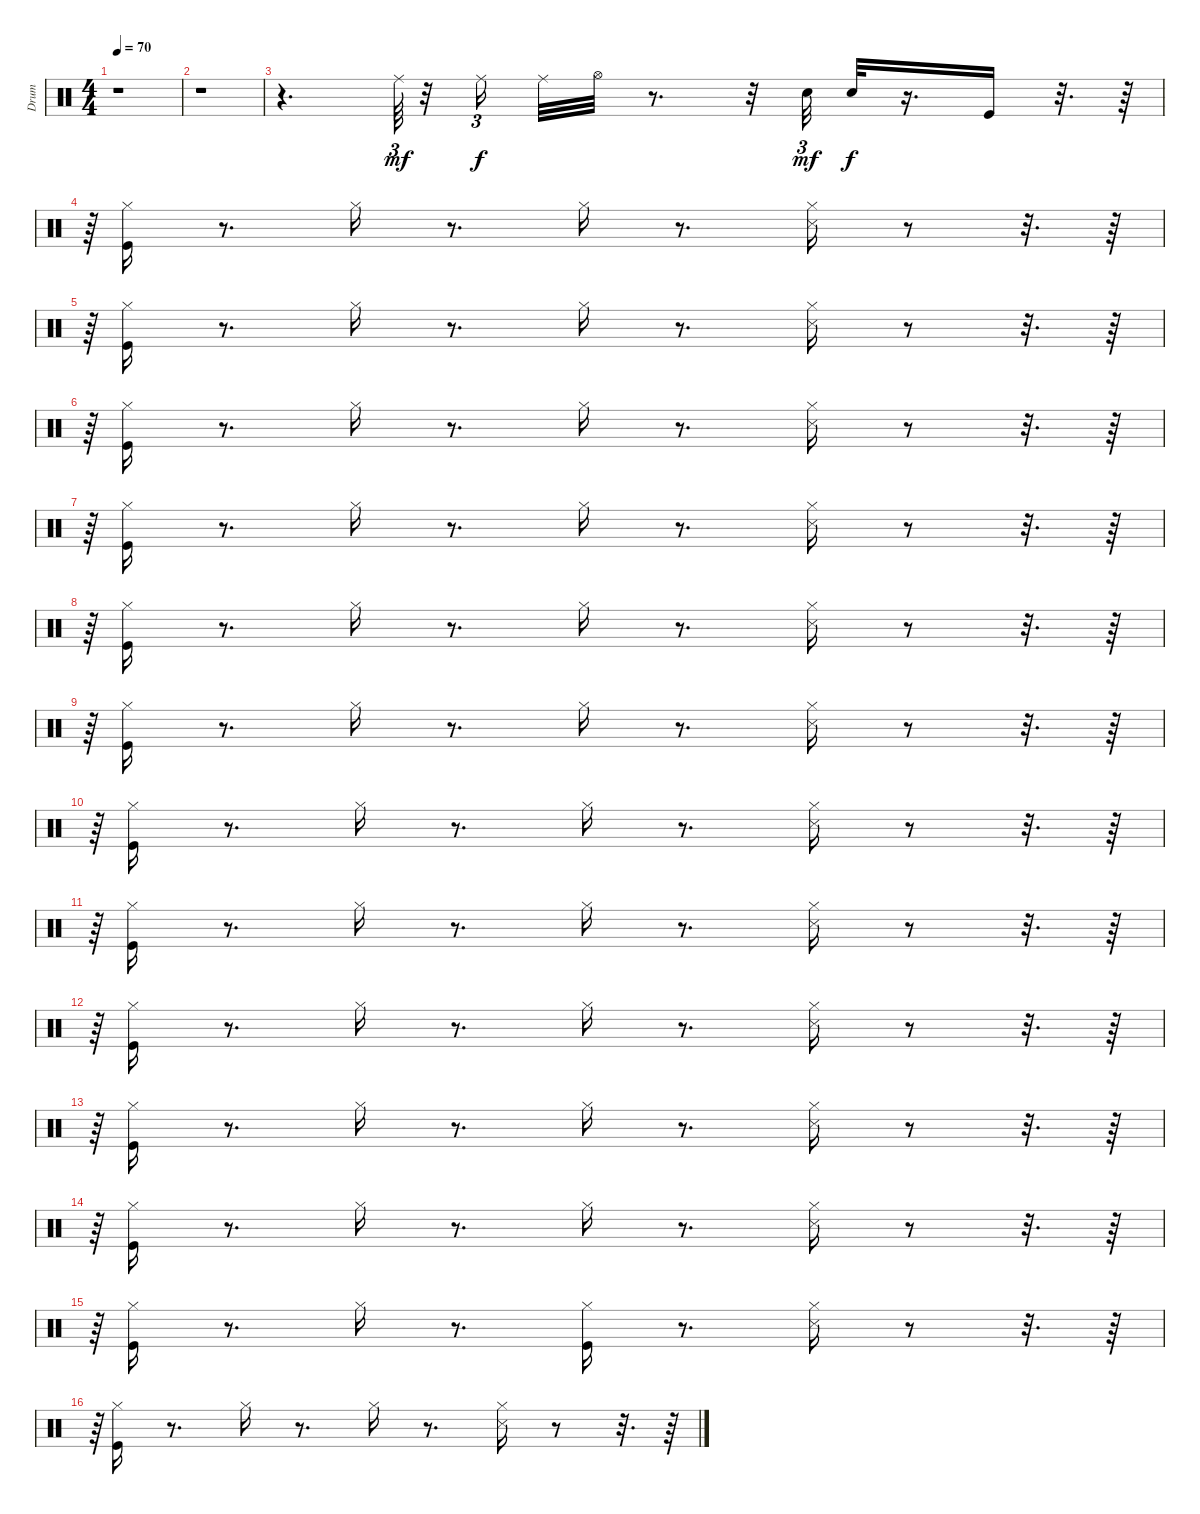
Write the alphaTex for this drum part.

\track ("Drum" "Drum") {instrument percussion}
\staff {score}
\articulation defaults
\ts (4 4)
\tempo 70
\clef neutral
\ks c
r.1{dy mf} |
r.1 |
r.4{d} "Ride (middle)".64{tu (3 2)} r.32 "Ride (middle)".16{tu (3 2) dy f} "Ride (middle)".32 "Hi-Hat (open)".32 r.8{d} r.32 "Snare (hit) 2".32{tu (3 2) dy mf} "Snare (hit) 2".32{dy f} r.16{d} "Kick (hit)".16 r.32{d} r.64 |
r.64{tu (3 2)} ("Kick (hit)" "Hi-Hat (closed)").16 r.8{d} "Hi-Hat (closed)".16 r.8{d} "Hi-Hat (closed)".16 r.8{d} ("Hi-Hat (closed)" "Snare (side stick) 3").16 r.8 r.32{d} r.64 |
r.64{tu (3 2)} ("Kick (hit)" "Hi-Hat (closed)").16 r.8{d} "Hi-Hat (closed)".16 r.8{d} "Hi-Hat (closed)".16 r.8{d} ("Hi-Hat (closed)" "Snare (side stick) 3").16 r.8 r.32{d} r.64 |
r.64{tu (3 2)} ("Kick (hit)" "Hi-Hat (closed)").16 r.8{d} "Hi-Hat (closed)".16 r.8{d} "Hi-Hat (closed)".16 r.8{d} ("Hi-Hat (closed)" "Snare (side stick) 3").16 r.8 r.32{d} r.64 |
r.64{tu (3 2)} ("Kick (hit)" "Hi-Hat (closed)").16 r.8{d} "Hi-Hat (closed)".16 r.8{d} "Hi-Hat (closed)".16 r.8{d} ("Hi-Hat (closed)" "Snare (side stick) 3").16 r.8 r.32{d} r.64 |
r.64{tu (3 2)} ("Kick (hit)" "Hi-Hat (closed)").16 r.8{d} "Hi-Hat (closed)".16 r.8{d} "Hi-Hat (closed)".16 r.8{d} ("Hi-Hat (closed)" "Snare (side stick) 3").16 r.8 r.32{d} r.64 |
r.64{tu (3 2)} ("Kick (hit)" "Hi-Hat (closed)").16 r.8{d} "Hi-Hat (closed)".16 r.8{d} "Hi-Hat (closed)".16 r.8{d} ("Hi-Hat (closed)" "Snare (side stick) 3").16 r.8 r.32{d} r.64 |
r.64{tu (3 2)} ("Kick (hit)" "Hi-Hat (closed)").16 r.8{d} "Hi-Hat (closed)".16 r.8{d} "Hi-Hat (closed)".16 r.8{d} ("Hi-Hat (closed)" "Snare (side stick) 3").16 r.8 r.32{d} r.64 |
r.64{tu (3 2)} ("Kick (hit)" "Hi-Hat (closed)").16 r.8{d} "Hi-Hat (closed)".16 r.8{d} "Hi-Hat (closed)".16 r.8{d} ("Hi-Hat (closed)" "Snare (side stick) 3").16 r.8 r.32{d} r.64 |
r.64{tu (3 2)} ("Kick (hit)" "Hi-Hat (closed)").16 r.8{d} "Hi-Hat (closed)".16 r.8{d} "Hi-Hat (closed)".16 r.8{d} ("Hi-Hat (closed)" "Snare (side stick) 3").16 r.8 r.32{d} r.64 |
r.64{tu (3 2)} ("Kick (hit)" "Hi-Hat (closed)").16 r.8{d} "Hi-Hat (closed)".16 r.8{d} "Hi-Hat (closed)".16 r.8{d} ("Hi-Hat (closed)" "Snare (side stick) 3").16 r.8 r.32{d} r.64 |
r.64{tu (3 2)} ("Kick (hit)" "Hi-Hat (closed)").16 r.8{d} "Hi-Hat (closed)".16 r.8{d} "Hi-Hat (closed)".16 r.8{d} ("Hi-Hat (closed)" "Snare (side stick) 3").16 r.8 r.32{d} r.64 |
r.64{tu (3 2)} ("Kick (hit)" "Hi-Hat (closed)").16 r.8{d} "Hi-Hat (closed)".16 r.8{d} ("Hi-Hat (closed)" "Kick (hit)").16 r.8{d} ("Hi-Hat (closed)" "Snare (side stick) 3").16 r.8 r.32{d} r.64 |
r.64{tu (3 2)} ("Kick (hit)" "Hi-Hat (closed)").16 r.8{d} "Hi-Hat (closed)".16 r.8{d} "Hi-Hat (closed)".16 r.8{d} ("Hi-Hat (closed)" "Snare (side stick) 3").16 r.8 r.32{d} r.64
